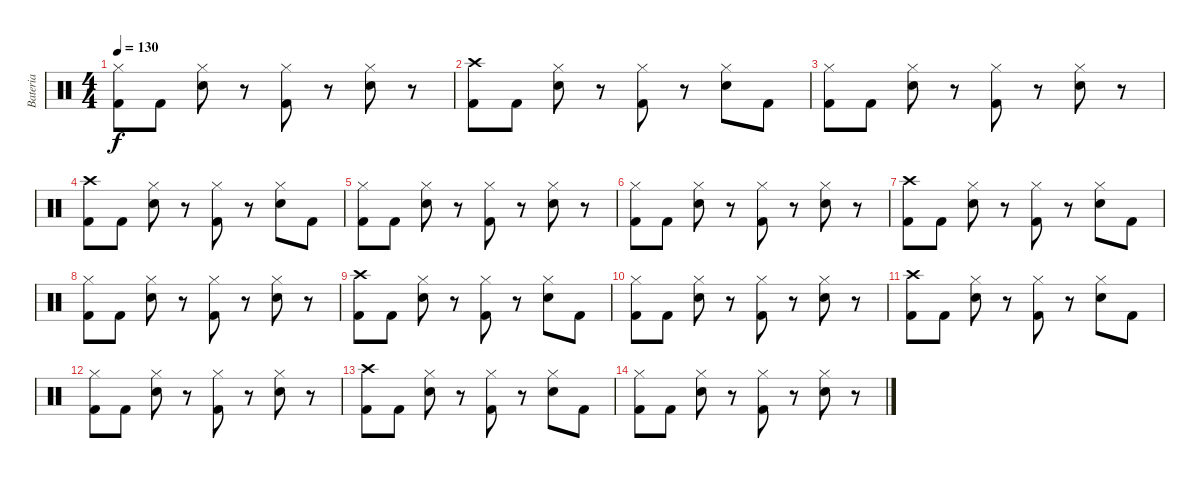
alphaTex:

\track ("Bateria" "Bateria") {instrument percussion}
\staff {score}
\articulation defaults
\ts (4 4)
\tempo 130
\clef neutral
\ks c
("Kick (hit) 2" "Hi-Hat (closed)").8{dy f} "Kick (hit) 2".8 ("Snare (hit) 2" "Hi-Hat (closed)").8 r.8 ("Kick (hit) 2" "Hi-Hat (closed)").8 r.8 ("Snare (hit) 2" "Hi-Hat (closed)").8 r.8 |
("Kick (hit) 2" "Crash high (hit)").8 "Kick (hit) 2".8 ("Snare (hit) 2" "Hi-Hat (closed)").8 r.8 ("Kick (hit) 2" "Hi-Hat (closed)").8 r.8 ("Snare (hit) 2" "Hi-Hat (closed)").8 "Kick (hit) 2".8 |
("Kick (hit) 2" "Hi-Hat (closed)").8 "Kick (hit) 2".8 ("Snare (hit) 2" "Hi-Hat (closed)").8 r.8 ("Kick (hit) 2" "Hi-Hat (closed)").8 r.8 ("Snare (hit) 2" "Hi-Hat (closed)").8 r.8 |
("Kick (hit) 2" "Crash high (hit)").8 "Kick (hit) 2".8 ("Snare (hit) 2" "Hi-Hat (closed)").8 r.8 ("Kick (hit) 2" "Hi-Hat (closed)").8 r.8 ("Snare (hit) 2" "Hi-Hat (closed)").8 "Kick (hit) 2".8 |
("Kick (hit) 2" "Hi-Hat (closed)").8 "Kick (hit) 2".8 ("Snare (hit) 2" "Hi-Hat (closed)").8 r.8 ("Kick (hit) 2" "Hi-Hat (closed)").8 r.8 ("Snare (hit) 2" "Hi-Hat (closed)").8 r.8 |
("Kick (hit) 2" "Hi-Hat (closed)").8 "Kick (hit) 2".8 ("Snare (hit) 2" "Hi-Hat (closed)").8 r.8 ("Kick (hit) 2" "Hi-Hat (closed)").8 r.8 ("Snare (hit) 2" "Hi-Hat (closed)").8 r.8 |
("Kick (hit) 2" "Crash high (hit)").8 "Kick (hit) 2".8 ("Snare (hit) 2" "Hi-Hat (closed)").8 r.8 ("Kick (hit) 2" "Hi-Hat (closed)").8 r.8 ("Snare (hit) 2" "Hi-Hat (closed)").8 "Kick (hit) 2".8 |
("Kick (hit) 2" "Hi-Hat (closed)").8 "Kick (hit) 2".8 ("Snare (hit) 2" "Hi-Hat (closed)").8 r.8 ("Kick (hit) 2" "Hi-Hat (closed)").8 r.8 ("Snare (hit) 2" "Hi-Hat (closed)").8 r.8 |
("Kick (hit) 2" "Crash high (hit)").8 "Kick (hit) 2".8 ("Snare (hit) 2" "Hi-Hat (closed)").8 r.8 ("Kick (hit) 2" "Hi-Hat (closed)").8 r.8 ("Snare (hit) 2" "Hi-Hat (closed)").8 "Kick (hit) 2".8 |
("Kick (hit) 2" "Hi-Hat (closed)").8 "Kick (hit) 2".8 ("Snare (hit) 2" "Hi-Hat (closed)").8 r.8 ("Kick (hit) 2" "Hi-Hat (closed)").8 r.8 ("Snare (hit) 2" "Hi-Hat (closed)").8 r.8 |
("Kick (hit) 2" "Crash high (hit)").8 "Kick (hit) 2".8 ("Snare (hit) 2" "Hi-Hat (closed)").8 r.8 ("Kick (hit) 2" "Hi-Hat (closed)").8 r.8 ("Snare (hit) 2" "Hi-Hat (closed)").8 "Kick (hit) 2".8 |
("Kick (hit) 2" "Hi-Hat (closed)").8 "Kick (hit) 2".8 ("Snare (hit) 2" "Hi-Hat (closed)").8 r.8 ("Kick (hit) 2" "Hi-Hat (closed)").8 r.8 ("Snare (hit) 2" "Hi-Hat (closed)").8 r.8 |
("Kick (hit) 2" "Crash high (hit)").8 "Kick (hit) 2".8 ("Snare (hit) 2" "Hi-Hat (closed)").8 r.8 ("Kick (hit) 2" "Hi-Hat (closed)").8 r.8 ("Snare (hit) 2" "Hi-Hat (closed)").8 "Kick (hit) 2".8 |
("Kick (hit) 2" "Hi-Hat (closed)").8 "Kick (hit) 2".8 ("Snare (hit) 2" "Hi-Hat (closed)").8 r.8 ("Kick (hit) 2" "Hi-Hat (closed)").8 r.8 ("Snare (hit) 2" "Hi-Hat (closed)").8 r.8
